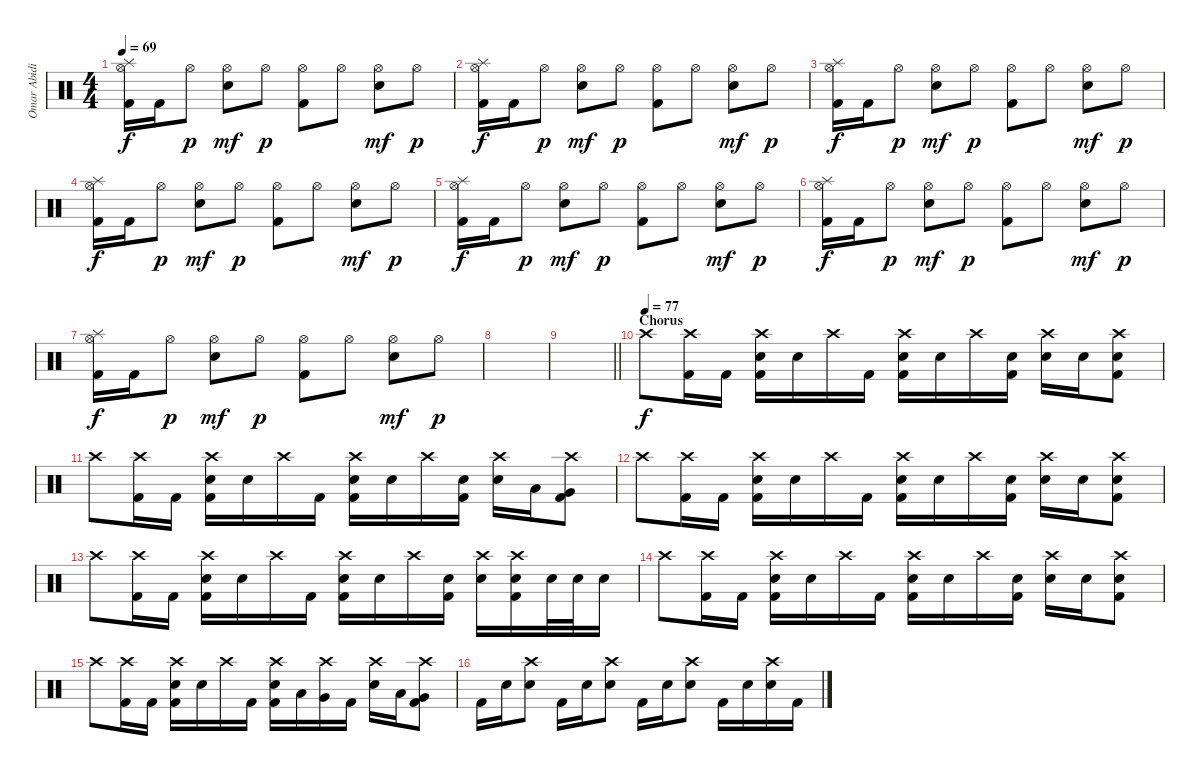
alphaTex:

\track ("Omar Abidi" "Omar Abidi") {instrument percussion}
\staff {score}
\articulation defaults
\ts (4 4)
\tempo 69
\clef neutral
\ks c
("Splash (hit)" "Hi-Hat (open)" "Kick (hit) 2").16{dy f} "Kick (hit) 2".16 "Hi-Hat (open)".8{dy p} ("Hi-Hat (open)" "Electric Snare (hit)").8{dy mf} "Hi-Hat (open)".8{dy p} ("Hi-Hat (open)" "Kick (hit) 2").8 "Hi-Hat (open)".8 ("Hi-Hat (open)" "Electric Snare (hit)").8{dy mf} "Hi-Hat (open)".8{dy p} |
("Splash (hit)" "Hi-Hat (open)" "Kick (hit) 2").16{dy f} "Kick (hit) 2".16 "Hi-Hat (open)".8{dy p} ("Hi-Hat (open)" "Electric Snare (hit)").8{dy mf} "Hi-Hat (open)".8{dy p} ("Hi-Hat (open)" "Kick (hit) 2").8 "Hi-Hat (open)".8 ("Hi-Hat (open)" "Electric Snare (hit)").8{dy mf} "Hi-Hat (open)".8{dy p} |
("Splash (hit)" "Hi-Hat (open)" "Kick (hit) 2").16{dy f} "Kick (hit) 2".16 "Hi-Hat (open)".8{dy p} ("Hi-Hat (open)" "Electric Snare (hit)").8{dy mf} "Hi-Hat (open)".8{dy p} ("Hi-Hat (open)" "Kick (hit) 2").8 "Hi-Hat (open)".8 ("Hi-Hat (open)" "Electric Snare (hit)").8{dy mf} "Hi-Hat (open)".8{dy p} |
("Splash (hit)" "Hi-Hat (open)" "Kick (hit) 2").16{dy f} "Kick (hit) 2".16 "Hi-Hat (open)".8{dy p} ("Hi-Hat (open)" "Electric Snare (hit)").8{dy mf} "Hi-Hat (open)".8{dy p} ("Hi-Hat (open)" "Kick (hit) 2").8 "Hi-Hat (open)".8 ("Hi-Hat (open)" "Electric Snare (hit)").8{dy mf} "Hi-Hat (open)".8{dy p} |
("Splash (hit)" "Hi-Hat (open)" "Kick (hit) 2").16{dy f} "Kick (hit) 2".16 "Hi-Hat (open)".8{dy p} ("Hi-Hat (open)" "Electric Snare (hit)").8{dy mf} "Hi-Hat (open)".8{dy p} ("Hi-Hat (open)" "Kick (hit) 2").8 "Hi-Hat (open)".8 ("Hi-Hat (open)" "Electric Snare (hit)").8{dy mf} "Hi-Hat (open)".8{dy p} |
("Splash (hit)" "Hi-Hat (open)" "Kick (hit) 2").16{dy f} "Kick (hit) 2".16 "Hi-Hat (open)".8{dy p} ("Hi-Hat (open)" "Electric Snare (hit)").8{dy mf} "Hi-Hat (open)".8{dy p} ("Hi-Hat (open)" "Kick (hit) 2").8 "Hi-Hat (open)".8 ("Hi-Hat (open)" "Electric Snare (hit)").8{dy mf} "Hi-Hat (open)".8{dy p} |
("Splash (hit)" "Hi-Hat (open)" "Kick (hit) 2").16{dy f} "Kick (hit) 2".16 "Hi-Hat (open)".8{dy p} ("Hi-Hat (open)" "Electric Snare (hit)").8{dy mf} "Hi-Hat (open)".8{dy p} ("Hi-Hat (open)" "Kick (hit) 2").8 "Hi-Hat (open)".8 ("Hi-Hat (open)" "Electric Snare (hit)").8{dy mf} "Hi-Hat (open)".8{dy p} |
|
\barLineRight lightlight
|
\section ("" "Chorus")
\tempo (77)
"Crash high (hit)".8{dy f volume 14} ("Crash high (hit)" "Kick (hit) 2").16 "Kick (hit) 2".16 ("Crash high (hit)" "Electric Snare (hit)" "Kick (hit) 2").16 "Electric Snare (hit)".16 "Crash high (hit)".16 "Kick (hit) 2".16 ("Crash high (hit)" "Electric Snare (hit)" "Kick (hit) 2").16 "Electric Snare (hit)".16 "Crash high (hit)".16 ("Electric Snare (hit)" "Kick (hit) 2").16 ("Crash high (hit)" "Electric Snare (hit)").16 "Electric Snare (hit)".16 ("Crash high (hit)" "Electric Snare (hit)" "Kick (hit) 2").8 |
"Crash high (hit)".8{volume 14} ("Crash high (hit)" "Kick (hit) 2").16 "Kick (hit) 2".16 ("Crash high (hit)" "Electric Snare (hit)" "Kick (hit) 2").16 "Electric Snare (hit)".16 "Crash high (hit)".16 "Kick (hit) 2".16 ("Crash high (hit)" "Electric Snare (hit)" "Kick (hit) 2").16 "Electric Snare (hit)".16 "Crash high (hit)".16 ("Electric Snare (hit)" "Kick (hit) 2").16 ("Crash high (hit)" "Electric Snare (hit)").16 "Low Tom (hit)".16 ("Crash high (hit)" "Very Low Tom (hit)" "Kick (hit) 2").8 |
"Crash high (hit)".8{volume 14} ("Crash high (hit)" "Kick (hit) 2").16 "Kick (hit) 2".16 ("Crash high (hit)" "Electric Snare (hit)" "Kick (hit) 2").16 "Electric Snare (hit)".16 "Crash high (hit)".16 "Kick (hit) 2".16 ("Crash high (hit)" "Electric Snare (hit)" "Kick (hit) 2").16 "Electric Snare (hit)".16 "Crash high (hit)".16 ("Electric Snare (hit)" "Kick (hit) 2").16 ("Crash high (hit)" "Electric Snare (hit)").16 "Electric Snare (hit)".16 ("Crash high (hit)" "Electric Snare (hit)" "Kick (hit) 2").8 |
"Crash high (hit)".8{volume 14} ("Crash high (hit)" "Kick (hit) 2").16 "Kick (hit) 2".16 ("Crash high (hit)" "Electric Snare (hit)" "Kick (hit) 2").16 "Electric Snare (hit)".16 "Crash high (hit)".16 "Kick (hit) 2".16 ("Crash high (hit)" "Electric Snare (hit)" "Kick (hit) 2").16 "Electric Snare (hit)".16 "Crash high (hit)".16 ("Electric Snare (hit)" "Kick (hit) 2").16 ("Crash high (hit)" "Electric Snare (hit)").16 ("Crash high (hit)" "Electric Snare (hit)" "Kick (hit) 2").16 "Electric Snare (hit)".32 "Electric Snare (hit)".32 "Electric Snare (hit)".16 |
"Crash high (hit)".8{volume 14} ("Crash high (hit)" "Kick (hit) 2").16 "Kick (hit) 2".16 ("Crash high (hit)" "Electric Snare (hit)" "Kick (hit) 2").16 "Electric Snare (hit)".16 "Crash high (hit)".16 "Kick (hit) 2".16 ("Crash high (hit)" "Electric Snare (hit)" "Kick (hit) 2").16 "Electric Snare (hit)".16 "Crash high (hit)".16 ("Electric Snare (hit)" "Kick (hit) 2").16 ("Crash high (hit)" "Electric Snare (hit)").16 "Electric Snare (hit)".16 ("Crash high (hit)" "Electric Snare (hit)" "Kick (hit) 2").8 |
"Crash high (hit)".8{volume 14} ("Crash high (hit)" "Kick (hit) 2").16 "Kick (hit) 2".16 ("Crash high (hit)" "Electric Snare (hit)" "Kick (hit) 2").16 "Electric Snare (hit)".16 "Crash high (hit)".16 "Kick (hit) 2".16 ("Crash high (hit)" "Electric Snare (hit)" "Kick (hit) 2").16 "Low Tom (hit)".16 ("Crash high (hit)" "Very Low Tom (hit)").16 "Kick (hit) 2".16 ("Crash high (hit)" "Electric Snare (hit)").16 "Low Tom (hit)".16 ("Crash high (hit)" "Very Low Tom (hit)" "Kick (hit) 2").8 |
"Kick (hit) 2".16 "Electric Snare (hit)".16 ("Crash high (hit)" "Electric Snare (hit)").8 "Kick (hit) 2".16 "Electric Snare (hit)".16 ("Crash high (hit)" "Electric Snare (hit)").8 "Kick (hit) 2".16 "Electric Snare (hit)".16 ("Crash high (hit)" "Electric Snare (hit)").8 "Kick (hit) 2".16 "Electric Snare (hit)".16 ("Crash high (hit)" "Electric Snare (hit)").16 "Kick (hit) 2".16
